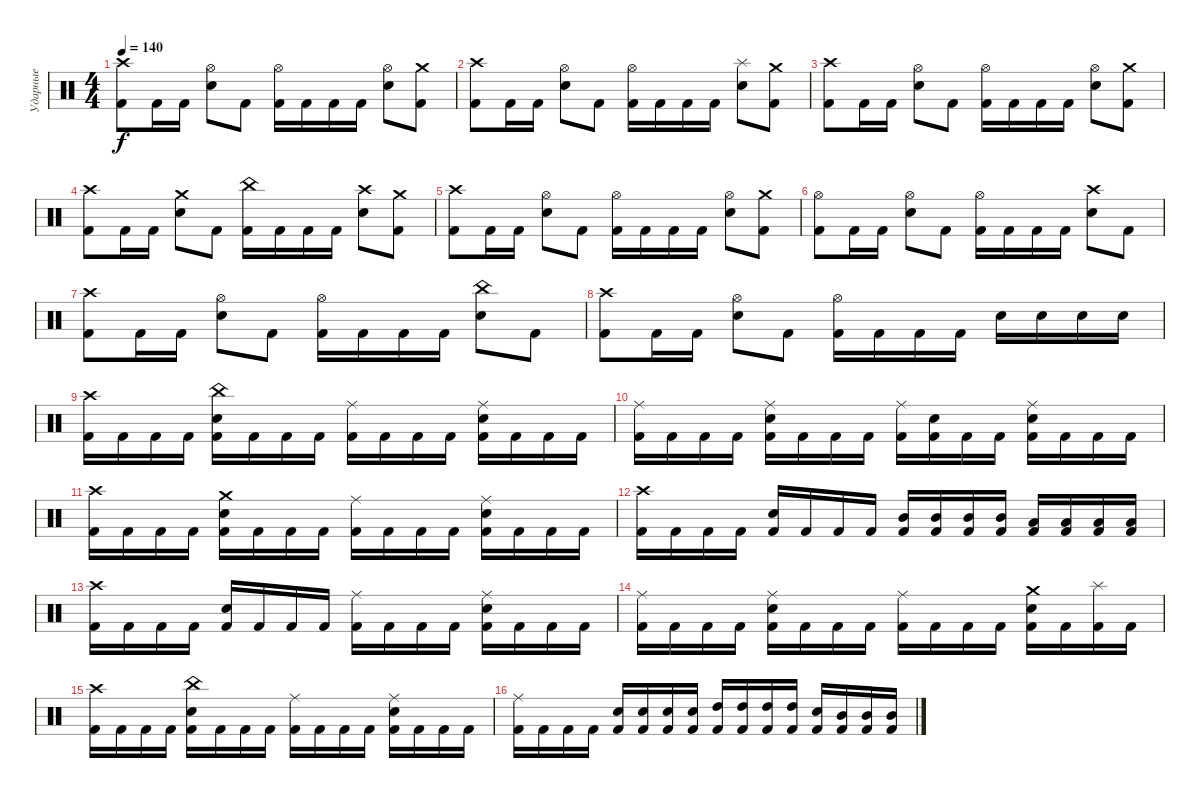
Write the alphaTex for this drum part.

\track ("Ударные" "Ударные") {instrument percussion}
\staff {score}
\articulation defaults
\ts (4 4)
\tempo 140
\clef neutral
\ks c
("Kick (hit) 2" "Crash high (hit)").8{dy f} "Kick (hit) 2".16 "Kick (hit) 2".16 ("Hi-Hat (open)" "Electric Snare (hit)").8 "Kick (hit) 2".8 ("Kick (hit) 2" "Hi-Hat (open)").16 "Kick (hit) 2".16 "Kick (hit) 2".16 "Kick (hit) 2".16 ("Hi-Hat (open)" "Electric Snare (hit)").8 ("Kick (hit) 2" "Crash medium (hit)").8 |
("Kick (hit) 2" "Crash high (hit)").8 "Kick (hit) 2".16 "Kick (hit) 2".16 ("Hi-Hat (open)" "Electric Snare (hit)").8 "Kick (hit) 2".8 ("Kick (hit) 2" "Hi-Hat (open)").16 "Kick (hit) 2".16 "Kick (hit) 2".16 "Kick (hit) 2".16 ("Splash (hit)" "Electric Snare (hit)").8 ("Kick (hit) 2" "Crash medium (hit)").8 |
("Kick (hit) 2" "Crash high (hit)").8 "Kick (hit) 2".16 "Kick (hit) 2".16 ("Hi-Hat (open)" "Electric Snare (hit)").8 "Kick (hit) 2".8 ("Kick (hit) 2" "Hi-Hat (open)").16 "Kick (hit) 2".16 "Kick (hit) 2".16 "Kick (hit) 2".16 ("Hi-Hat (open)" "Electric Snare (hit)").8 ("Kick (hit) 2" "Crash medium (hit)").8 |
("Kick (hit) 2" "Crash high (hit)").8 "Kick (hit) 2".16 "Kick (hit) 2".16 ("Crash medium (hit)" "Electric Snare (hit)").8 "Kick (hit) 2".8 ("Kick (hit) 2" "China (hit)").16 "Kick (hit) 2".16 "Kick (hit) 2".16 "Kick (hit) 2".16 ("Electric Snare (hit)" "Crash high (hit)").8 ("Kick (hit) 2" "Crash medium (hit)").8 |
("Kick (hit) 2" "Crash high (hit)").8 "Kick (hit) 2".16 "Kick (hit) 2".16 ("Hi-Hat (open)" "Electric Snare (hit)").8 "Kick (hit) 2".8 ("Kick (hit) 2" "Hi-Hat (open)").16 "Kick (hit) 2".16 "Kick (hit) 2".16 "Kick (hit) 2".16 ("Hi-Hat (open)" "Electric Snare (hit)").8 ("Kick (hit) 2" "Crash medium (hit)").8 |
("Kick (hit) 2" "Hi-Hat (open)").8 "Kick (hit) 2".16 "Kick (hit) 2".16 ("Hi-Hat (open)" "Electric Snare (hit)").8 "Kick (hit) 2".8 ("Kick (hit) 2" "Hi-Hat (open)").16 "Kick (hit) 2".16 "Kick (hit) 2".16 "Kick (hit) 2".16 ("Crash high (hit)" "Electric Snare (hit)").8 "Kick (hit) 2".8 |
("Kick (hit) 2" "Crash high (hit)").8 "Kick (hit) 2".16 "Kick (hit) 2".16 ("Hi-Hat (open)" "Electric Snare (hit)").8 "Kick (hit) 2".8 ("Kick (hit) 2" "Hi-Hat (open)").16 "Kick (hit) 2".16 "Kick (hit) 2".16 "Kick (hit) 2".16 ("China (hit)" "Electric Snare (hit)").8 "Kick (hit) 2".8 |
("Kick (hit) 2" "Crash high (hit)").8 "Kick (hit) 2".16 "Kick (hit) 2".16 ("Hi-Hat (open)" "Electric Snare (hit)").8 "Kick (hit) 2".8 ("Kick (hit) 2" "Hi-Hat (open)").16 "Kick (hit) 2".16 "Kick (hit) 2".16 "Kick (hit) 2".16 "Electric Snare (hit)".16 "Electric Snare (hit)".16 "Electric Snare (hit)".16 "Electric Snare (hit)".16 |
("Kick (hit) 2" "Crash high (hit)").16 "Kick (hit) 2".16 "Kick (hit) 2".16 "Kick (hit) 2".16 ("Kick (hit) 2" "China (hit)" "Electric Snare (hit)").16 "Kick (hit) 2".16 "Kick (hit) 2".16 "Kick (hit) 2".16 ("Kick (hit) 2" "Ride (middle)").16 "Kick (hit) 2".16 "Kick (hit) 2".16 "Kick (hit) 2".16 ("Kick (hit) 2" "Ride (middle)" "Electric Snare (hit)").16 "Kick (hit) 2".16 "Kick (hit) 2".16 "Kick (hit) 2".16 |
("Kick (hit) 2" "Ride (middle)").16 "Kick (hit) 2".16 "Kick (hit) 2".16 "Kick (hit) 2".16 ("Kick (hit) 2" "Ride (middle)" "Electric Snare (hit)").16 "Kick (hit) 2".16 "Kick (hit) 2".16 "Kick (hit) 2".16 ("Kick (hit) 2" "Ride (middle)").16 ("Kick (hit) 2" "Electric Snare (hit)").16 "Kick (hit) 2".16 "Kick (hit) 2".16 ("Kick (hit) 2" "Ride (middle)" "Electric Snare (hit)").16 "Kick (hit) 2".16 "Kick (hit) 2".16 "Kick (hit) 2".16 |
("Kick (hit) 2" "Crash high (hit)").16 "Kick (hit) 2".16 "Kick (hit) 2".16 "Kick (hit) 2".16 ("Kick (hit) 2" "Crash medium (hit)" "Electric Snare (hit)").16 "Kick (hit) 2".16 "Kick (hit) 2".16 "Kick (hit) 2".16 ("Kick (hit) 2" "Ride (middle)").16 "Kick (hit) 2".16 "Kick (hit) 2".16 "Kick (hit) 2".16 ("Kick (hit) 2" "Ride (middle)" "Electric Snare (hit)").16 "Kick (hit) 2".16 "Kick (hit) 2".16 "Kick (hit) 2".16 |
("Kick (hit) 2" "Crash high (hit)").16 "Kick (hit) 2".16 "Kick (hit) 2".16 "Kick (hit) 2".16 ("Kick (hit) 2" "Electric Snare (hit)").16 "Kick (hit) 2".16 "Kick (hit) 2".16 "Kick (hit) 2".16 ("Kick (hit) 2" "Mid Tom (hit)").16 ("Kick (hit) 2" "Mid Tom (hit)").16 ("Kick (hit) 2" "Mid Tom (hit)").16 ("Kick (hit) 2" "Mid Tom (hit)").16 ("Kick (hit) 2" "Low Tom (hit)").16 ("Kick (hit) 2" "Low Tom (hit)").16 ("Kick (hit) 2" "Low Tom (hit)").16 ("Kick (hit) 2" "Low Tom (hit)").16 |
("Kick (hit) 2" "Crash high (hit)").16 "Kick (hit) 2".16 "Kick (hit) 2".16 "Kick (hit) 2".16 ("Kick (hit) 2" "Electric Snare (hit)").16 "Kick (hit) 2".16 "Kick (hit) 2".16 "Kick (hit) 2".16 ("Kick (hit) 2" "Ride (middle)").16 "Kick (hit) 2".16 "Kick (hit) 2".16 "Kick (hit) 2".16 ("Kick (hit) 2" "Ride (middle)" "Electric Snare (hit)").16 "Kick (hit) 2".16 "Kick (hit) 2".16 "Kick (hit) 2".16 |
("Kick (hit) 2" "Ride (middle)").16 "Kick (hit) 2".16 "Kick (hit) 2".16 "Kick (hit) 2".16 ("Kick (hit) 2" "Ride (middle)" "Electric Snare (hit)").16 "Kick (hit) 2".16 "Kick (hit) 2".16 "Kick (hit) 2".16 ("Kick (hit) 2" "Ride (middle)").16 "Kick (hit) 2".16 "Kick (hit) 2".16 "Kick (hit) 2".16 ("Kick (hit) 2" "Crash medium (hit)" "Electric Snare (hit)").16 "Kick (hit) 2".16 ("Kick (hit) 2" "Splash (hit)").16 "Kick (hit) 2".16 |
("Kick (hit) 2" "Crash high (hit)").16 "Kick (hit) 2".16 "Kick (hit) 2".16 "Kick (hit) 2".16 ("Kick (hit) 2" "China (hit)" "Electric Snare (hit)").16 "Kick (hit) 2".16 "Kick (hit) 2".16 "Kick (hit) 2".16 ("Kick (hit) 2" "Ride (middle)").16 "Kick (hit) 2".16 "Kick (hit) 2".16 "Kick (hit) 2".16 ("Kick (hit) 2" "Ride (middle)" "Electric Snare (hit)").16 "Kick (hit) 2".16 "Kick (hit) 2".16 "Kick (hit) 2".16 |
("Kick (hit) 2" "Ride (middle)").16 "Kick (hit) 2".16 "Kick (hit) 2".16 "Kick (hit) 2".16 ("Kick (hit) 2" "Electric Snare (hit)").16 ("Kick (hit) 2" "Electric Snare (hit)").16 ("Kick (hit) 2" "Electric Snare (hit)").16 ("Kick (hit) 2" "Electric Snare (hit)").16 ("Kick (hit) 2" "High Tom (hit)").16 ("Kick (hit) 2" "High Tom (hit)").16 ("Kick (hit) 2" "High Tom (hit)").16 ("Kick (hit) 2" "High Tom (hit)").16 ("Kick (hit) 2" "Electric Snare (hit)").16 ("Kick (hit) 2" "Mid Tom (hit)").16 ("Kick (hit) 2" "Mid Tom (hit)").16 ("Kick (hit) 2" "Mid Tom (hit)").16
